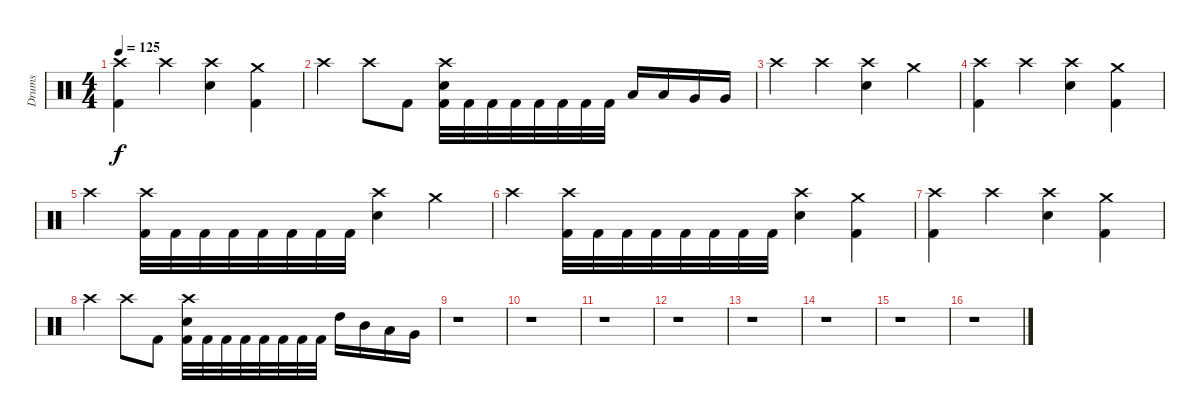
\track ("Drums" "Drums") {instrument percussion}
\staff {score}
\articulation defaults
\ts (4 4)
\tempo 125
\clef neutral
\ks c
("Crash high (hit)" "Kick (hit) 2").4{dy f} "Crash high (hit)".4 ("Crash high (hit)" "Snare (hit) 2").4 ("Crash medium (hit)" "Kick (hit) 2").4 |
"Crash high (hit)".4 "Crash high (hit)".8 "Kick (hit) 2".8 ("Crash high (hit)" "Snare (hit) 2" "Kick (hit) 2").32 "Kick (hit) 2".32 "Kick (hit) 2".32 "Kick (hit) 2".32 "Kick (hit) 2".32 "Kick (hit) 2".32 "Kick (hit) 2".32 "Kick (hit) 2".32 "Low Floor Tom (hit)".16 "Low Floor Tom (hit)".16 "Very Low Tom (hit)".16 "Very Low Tom (hit)".16 |
"Crash high (hit)".4 "Crash high (hit)".4 ("Snare (hit) 2" "Crash high (hit)").4 "Crash medium (hit)".4 |
("Crash high (hit)" "Kick (hit) 2").4 "Crash high (hit)".4 ("Crash high (hit)" "Snare (hit) 2").4 ("Crash medium (hit)" "Kick (hit) 2").4 |
"Crash high (hit)".4 ("Kick (hit) 2" "Crash high (hit)").32 "Kick (hit) 2".32 "Kick (hit) 2".32 "Kick (hit) 2".32 "Kick (hit) 2".32 "Kick (hit) 2".32 "Kick (hit) 2".32 "Kick (hit) 2".32 ("Crash high (hit)" "Snare (hit) 2").4 "Crash medium (hit)".4 |
"Crash high (hit)".4 ("Crash high (hit)" "Kick (hit) 2").32 "Kick (hit) 2".32 "Kick (hit) 2".32 "Kick (hit) 2".32 "Kick (hit) 2".32 "Kick (hit) 2".32 "Kick (hit) 2".32 "Kick (hit) 2".32 ("Crash high (hit)" "Snare (hit) 2").4 ("Crash medium (hit)" "Kick (hit) 2").4 |
("Crash high (hit)" "Kick (hit) 2").4 "Crash high (hit)".4 ("Crash high (hit)" "Snare (hit) 2").4 ("Crash medium (hit)" "Kick (hit) 2").4 |
"Crash high (hit)".4 "Crash high (hit)".8 "Kick (hit) 2".8 ("Crash high (hit)" "Snare (hit) 2" "Kick (hit) 2").32 "Kick (hit) 2".32 "Kick (hit) 2".32 "Kick (hit) 2".32 "Kick (hit) 2".32 "Kick (hit) 2".32 "Kick (hit) 2".32 "Kick (hit) 2".32 "High Tom (hit)".16 "Mid Tom (hit)".16 "Low Tom (hit)".16 "Very Low Tom (hit)".16 |
r.1 |
r.1 |
r.1 |
r.1 |
r.1 |
r.1 |
r.1 |
r.1
